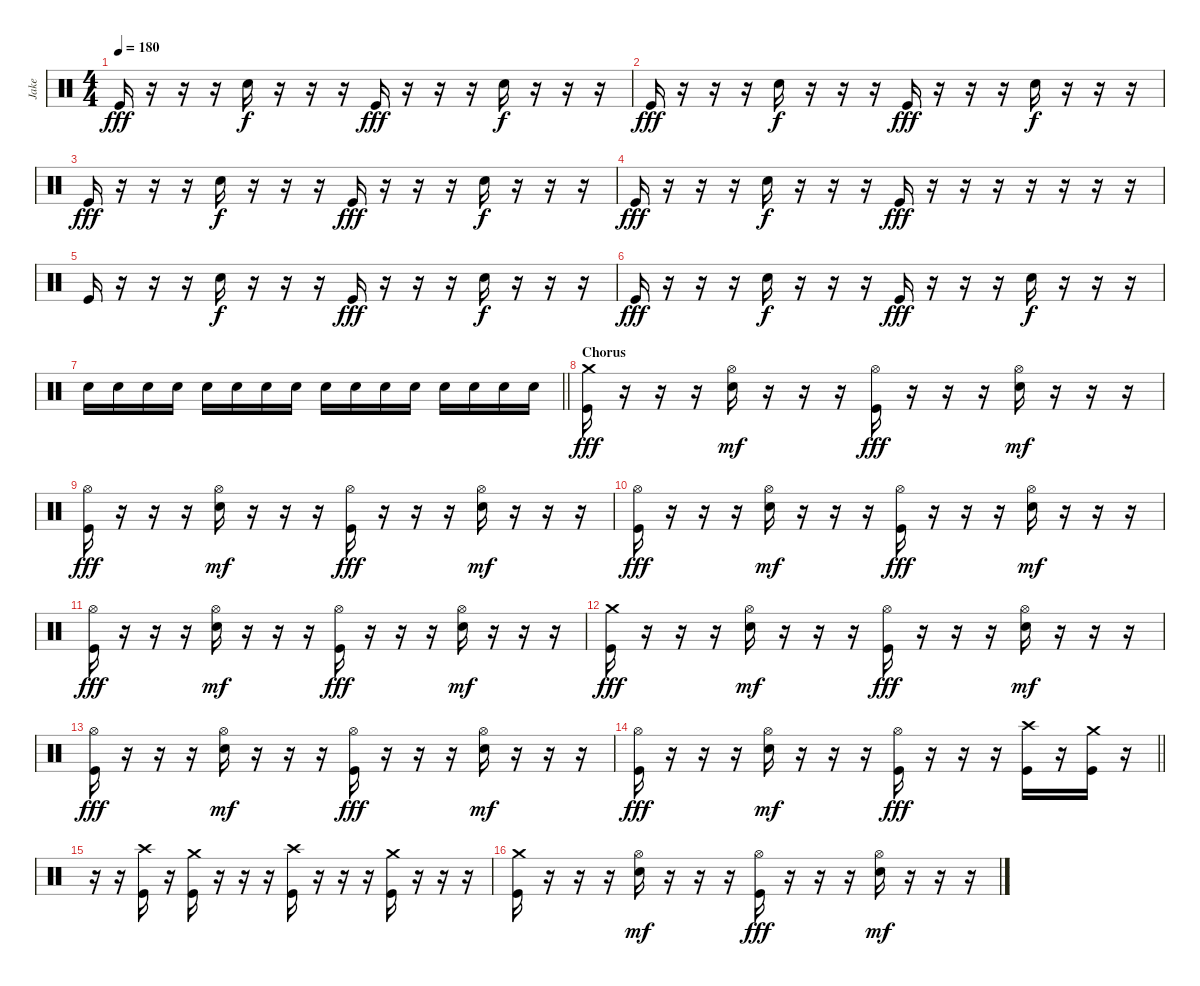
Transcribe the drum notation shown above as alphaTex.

\track ("Jake" "Jake") {instrument percussion}
\staff {score}
\articulation defaults
\ts (4 4)
\tempo 180
\clef neutral
\ks c "Kick (hit)".16{dy fff}
r.16 r.16 r.16 "Electric Snare (hit)".16{dy f} r.16 r.16 r.16 "Kick (hit)".16{dy fff} r.16 r.16 r.16 "Electric Snare (hit)".16{dy f} r.16 r.16 r.16 |
"Kick (hit)".16{dy fff} r.16 r.16 r.16 "Electric Snare (hit)".16{dy f} r.16 r.16 r.16 "Kick (hit)".16{dy fff} r.16 r.16 r.16 "Electric Snare (hit)".16{dy f} r.16 r.16 r.16 |
"Kick (hit)".16{dy fff} r.16 r.16 r.16 "Electric Snare (hit)".16{dy f} r.16 r.16 r.16 "Kick (hit)".16{dy fff} r.16 r.16 r.16 "Electric Snare (hit)".16{dy f} r.16 r.16 r.16 |
"Kick (hit)".16{dy fff} r.16 r.16 r.16 "Electric Snare (hit)".16{dy f} r.16 r.16 r.16 "Kick (hit)".16{dy fff} r.16 r.16 r.16 r.16 r.16 r.16 r.16 |
"Kick (hit)".16 r.16 r.16 r.16 "Electric Snare (hit)".16{dy f} r.16 r.16 r.16 "Kick (hit)".16{dy fff} r.16 r.16 r.16 "Electric Snare (hit)".16{dy f} r.16 r.16 r.16 |
"Kick (hit)".16{dy fff} r.16 r.16 r.16 "Electric Snare (hit)".16{dy f} r.16 r.16 r.16 "Kick (hit)".16{dy fff} r.16 r.16 r.16 "Electric Snare (hit)".16{dy f} r.16 r.16 r.16 |
\barLineRight lightlight "Electric Snare (hit)".16 "Electric Snare (hit)".16 "Electric Snare (hit)".16 "Electric Snare (hit)".16 "Electric Snare (hit)".16 "Electric Snare (hit)".16 "Electric Snare (hit)".16 "Electric Snare (hit)".16 "Electric Snare (hit)".16 "Electric Snare (hit)".16 "Electric Snare (hit)".16 "Electric Snare (hit)".16 "Electric Snare (hit)".16 "Electric Snare (hit)".16 "Electric Snare (hit)".16 "Electric Snare (hit)".16
|
\section ("" "Chorus")
("Crash medium (hit)" "Kick (hit)").16{dy fff} r.16 r.16 r.16 ("Hi-Hat (open)" "Electric Snare (hit)").16{dy mf} r.16 r.16 r.16 ("Hi-Hat (open)" "Kick (hit)").16{dy fff} r.16 r.16 r.16 ("Hi-Hat (open)" "Electric Snare (hit)").16{dy mf} r.16 r.16 r.16 |
("Hi-Hat (open)" "Kick (hit)").16{dy fff} r.16 r.16 r.16 ("Hi-Hat (open)" "Electric Snare (hit)").16{dy mf} r.16 r.16 r.16 ("Hi-Hat (open)" "Kick (hit)").16{dy fff} r.16 r.16 r.16 ("Hi-Hat (open)" "Electric Snare (hit)").16{dy mf} r.16 r.16 r.16 |
("Hi-Hat (open)" "Kick (hit)").16{dy fff} r.16 r.16 r.16 ("Hi-Hat (open)" "Electric Snare (hit)").16{dy mf} r.16 r.16 r.16 ("Hi-Hat (open)" "Kick (hit)").16{dy fff} r.16 r.16 r.16 ("Hi-Hat (open)" "Electric Snare (hit)").16{dy mf} r.16 r.16 r.16 |
("Hi-Hat (open)" "Kick (hit)").16{dy fff} r.16 r.16 r.16 ("Hi-Hat (open)" "Electric Snare (hit)").16{dy mf} r.16 r.16 r.16 ("Hi-Hat (open)" "Kick (hit)").16{dy fff} r.16 r.16 r.16 ("Hi-Hat (open)" "Electric Snare (hit)").16{dy mf} r.16 r.16 r.16 |
("Crash medium (hit)" "Kick (hit)").16{dy fff} r.16 r.16 r.16 ("Hi-Hat (open)" "Electric Snare (hit)").16{dy mf} r.16 r.16 r.16 ("Hi-Hat (open)" "Kick (hit)").16{dy fff} r.16 r.16 r.16 ("Hi-Hat (open)" "Electric Snare (hit)").16{dy mf} r.16 r.16 r.16 |
("Hi-Hat (open)" "Kick (hit)").16{dy fff} r.16 r.16 r.16 ("Hi-Hat (open)" "Electric Snare (hit)").16{dy mf} r.16 r.16 r.16 ("Hi-Hat (open)" "Kick (hit)").16{dy fff} r.16 r.16 r.16 ("Hi-Hat (open)" "Electric Snare (hit)").16{dy mf} r.16 r.16 r.16 |
\barLineRight lightlight
("Hi-Hat (open)" "Kick (hit)").16{dy fff} r.16 r.16 r.16 ("Hi-Hat (open)" "Electric Snare (hit)").16{dy mf} r.16 r.16 r.16 ("Hi-Hat (open)" "Kick (hit)").16{dy fff} r.16 r.16 r.16 ("Crash high (hit)" "Kick (hit)").16 r.16 ("Crash medium (hit)" "Kick (hit)").16 r.16 |
r.16 r.16 ("Crash high (hit)" "Kick (hit)").16 r.16 ("Crash medium (hit)" "Kick (hit)").16 r.16 r.16 r.16 ("Crash high (hit)" "Kick (hit)").16 r.16 r.16 r.16 ("Crash medium (hit)" "Kick (hit)").16 r.16 r.16 r.16 |
("Crash medium (hit)" "Kick (hit)").16 r.16 r.16 r.16 ("Hi-Hat (open)" "Electric Snare (hit)").16{dy mf} r.16 r.16 r.16 ("Hi-Hat (open)" "Kick (hit)").16{dy fff} r.16 r.16 r.16 ("Hi-Hat (open)" "Electric Snare (hit)").16{dy mf} r.16 r.16 r.16
